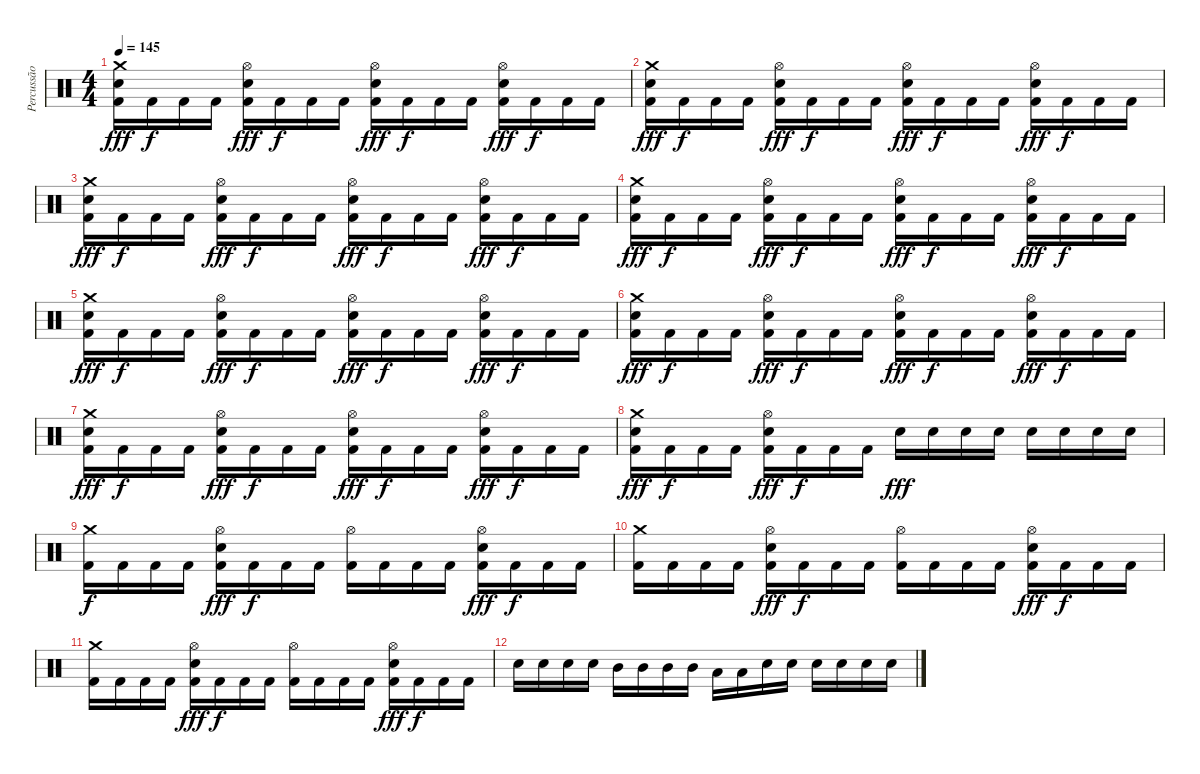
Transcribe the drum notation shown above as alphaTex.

\track ("Percussão" "Percussão") {instrument percussion}
\staff {score}
\articulation defaults
\ts (4 4)
\tempo 145
\clef neutral
\ks c
("Crash medium (hit)" "Snare (hit) 2" "Kick (hit) 2").16{dy fff} "Kick (hit) 2".16{dy f} "Kick (hit) 2".16 "Kick (hit) 2".16 ("Hi-Hat (open)" "Snare (hit) 2" "Kick (hit) 2").16{dy fff} "Kick (hit) 2".16{dy f} "Kick (hit) 2".16 "Kick (hit) 2".16 ("Hi-Hat (open)" "Snare (hit) 2" "Kick (hit) 2").16{dy fff} "Kick (hit) 2".16{dy f} "Kick (hit) 2".16 "Kick (hit) 2".16 ("Hi-Hat (open)" "Snare (hit) 2" "Kick (hit) 2").16{dy fff} "Kick (hit) 2".16{dy f} "Kick (hit) 2".16 "Kick (hit) 2".16 |
("Crash medium (hit)" "Snare (hit) 2" "Kick (hit) 2").16{dy fff} "Kick (hit) 2".16{dy f} "Kick (hit) 2".16 "Kick (hit) 2".16 ("Hi-Hat (open)" "Snare (hit) 2" "Kick (hit) 2").16{dy fff} "Kick (hit) 2".16{dy f} "Kick (hit) 2".16 "Kick (hit) 2".16 ("Hi-Hat (open)" "Snare (hit) 2" "Kick (hit) 2").16{dy fff} "Kick (hit) 2".16{dy f} "Kick (hit) 2".16 "Kick (hit) 2".16 ("Hi-Hat (open)" "Snare (hit) 2" "Kick (hit) 2").16{dy fff} "Kick (hit) 2".16{dy f} "Kick (hit) 2".16 "Kick (hit) 2".16 |
("Crash medium (hit)" "Snare (hit) 2" "Kick (hit) 2").16{dy fff} "Kick (hit) 2".16{dy f} "Kick (hit) 2".16 "Kick (hit) 2".16 ("Hi-Hat (open)" "Snare (hit) 2" "Kick (hit) 2").16{dy fff} "Kick (hit) 2".16{dy f} "Kick (hit) 2".16 "Kick (hit) 2".16 ("Hi-Hat (open)" "Snare (hit) 2" "Kick (hit) 2").16{dy fff} "Kick (hit) 2".16{dy f} "Kick (hit) 2".16 "Kick (hit) 2".16 ("Hi-Hat (open)" "Snare (hit) 2" "Kick (hit) 2").16{dy fff} "Kick (hit) 2".16{dy f} "Kick (hit) 2".16 "Kick (hit) 2".16 |
("Crash medium (hit)" "Snare (hit) 2" "Kick (hit) 2").16{dy fff} "Kick (hit) 2".16{dy f} "Kick (hit) 2".16 "Kick (hit) 2".16 ("Hi-Hat (open)" "Snare (hit) 2" "Kick (hit) 2").16{dy fff} "Kick (hit) 2".16{dy f} "Kick (hit) 2".16 "Kick (hit) 2".16 ("Hi-Hat (open)" "Snare (hit) 2" "Kick (hit) 2").16{dy fff} "Kick (hit) 2".16{dy f} "Kick (hit) 2".16 "Kick (hit) 2".16 ("Hi-Hat (open)" "Snare (hit) 2" "Kick (hit) 2").16{dy fff} "Kick (hit) 2".16{dy f} "Kick (hit) 2".16 "Kick (hit) 2".16 |
("Crash medium (hit)" "Snare (hit) 2" "Kick (hit) 2").16{dy fff} "Kick (hit) 2".16{dy f} "Kick (hit) 2".16 "Kick (hit) 2".16 ("Hi-Hat (open)" "Snare (hit) 2" "Kick (hit) 2").16{dy fff} "Kick (hit) 2".16{dy f} "Kick (hit) 2".16 "Kick (hit) 2".16 ("Hi-Hat (open)" "Snare (hit) 2" "Kick (hit) 2").16{dy fff} "Kick (hit) 2".16{dy f} "Kick (hit) 2".16 "Kick (hit) 2".16 ("Hi-Hat (open)" "Snare (hit) 2" "Kick (hit) 2").16{dy fff} "Kick (hit) 2".16{dy f} "Kick (hit) 2".16 "Kick (hit) 2".16 |
("Crash medium (hit)" "Snare (hit) 2" "Kick (hit) 2").16{dy fff} "Kick (hit) 2".16{dy f} "Kick (hit) 2".16 "Kick (hit) 2".16 ("Hi-Hat (open)" "Snare (hit) 2" "Kick (hit) 2").16{dy fff} "Kick (hit) 2".16{dy f} "Kick (hit) 2".16 "Kick (hit) 2".16 ("Hi-Hat (open)" "Snare (hit) 2" "Kick (hit) 2").16{dy fff} "Kick (hit) 2".16{dy f} "Kick (hit) 2".16 "Kick (hit) 2".16 ("Hi-Hat (open)" "Snare (hit) 2" "Kick (hit) 2").16{dy fff} "Kick (hit) 2".16{dy f} "Kick (hit) 2".16 "Kick (hit) 2".16 |
("Crash medium (hit)" "Snare (hit) 2" "Kick (hit) 2").16{dy fff} "Kick (hit) 2".16{dy f} "Kick (hit) 2".16 "Kick (hit) 2".16 ("Hi-Hat (open)" "Snare (hit) 2" "Kick (hit) 2").16{dy fff} "Kick (hit) 2".16{dy f} "Kick (hit) 2".16 "Kick (hit) 2".16 ("Hi-Hat (open)" "Snare (hit) 2" "Kick (hit) 2").16{dy fff} "Kick (hit) 2".16{dy f} "Kick (hit) 2".16 "Kick (hit) 2".16 ("Hi-Hat (open)" "Snare (hit) 2" "Kick (hit) 2").16{dy fff} "Kick (hit) 2".16{dy f} "Kick (hit) 2".16 "Kick (hit) 2".16 |
("Crash medium (hit)" "Snare (hit) 2" "Kick (hit) 2").16{dy fff} "Kick (hit) 2".16{dy f} "Kick (hit) 2".16 "Kick (hit) 2".16 ("Hi-Hat (open)" "Snare (hit) 2" "Kick (hit) 2").16{dy fff} "Kick (hit) 2".16{dy f} "Kick (hit) 2".16 "Kick (hit) 2".16 "Snare (hit) 2".16{dy fff} "Snare (hit) 2".16 "Snare (hit) 2".16 "Snare (hit) 2".16 "Snare (hit) 2".16 "Snare (hit) 2".16 "Snare (hit) 2".16 "Snare (hit) 2".16 |
("Crash medium (hit)" "Kick (hit) 2").16{dy f} "Kick (hit) 2".16 "Kick (hit) 2".16 "Kick (hit) 2".16 ("Hi-Hat (open)" "Snare (hit) 2" "Kick (hit) 2").16{dy fff} "Kick (hit) 2".16{dy f} "Kick (hit) 2".16 "Kick (hit) 2".16 ("Hi-Hat (open)" "Kick (hit) 2").16 "Kick (hit) 2".16 "Kick (hit) 2".16 "Kick (hit) 2".16 ("Hi-Hat (open)" "Snare (hit) 2" "Kick (hit) 2").16{dy fff} "Kick (hit) 2".16{dy f} "Kick (hit) 2".16 "Kick (hit) 2".16 |
("Crash medium (hit)" "Kick (hit) 2").16 "Kick (hit) 2".16 "Kick (hit) 2".16 "Kick (hit) 2".16 ("Hi-Hat (open)" "Snare (hit) 2" "Kick (hit) 2").16{dy fff} "Kick (hit) 2".16{dy f} "Kick (hit) 2".16 "Kick (hit) 2".16 ("Hi-Hat (open)" "Kick (hit) 2").16 "Kick (hit) 2".16 "Kick (hit) 2".16 "Kick (hit) 2".16 ("Hi-Hat (open)" "Snare (hit) 2" "Kick (hit) 2").16{dy fff} "Kick (hit) 2".16{dy f} "Kick (hit) 2".16 "Kick (hit) 2".16 |
("Crash medium (hit)" "Kick (hit) 2").16 "Kick (hit) 2".16 "Kick (hit) 2".16 "Kick (hit) 2".16 ("Hi-Hat (open)" "Snare (hit) 2" "Kick (hit) 2").16{dy fff} "Kick (hit) 2".16{dy f} "Kick (hit) 2".16 "Kick (hit) 2".16 ("Hi-Hat (open)" "Kick (hit) 2").16 "Kick (hit) 2".16 "Kick (hit) 2".16 "Kick (hit) 2".16 ("Hi-Hat (open)" "Snare (hit) 2" "Kick (hit) 2").16{dy fff} "Kick (hit) 2".16{dy f} "Kick (hit) 2".16 "Kick (hit) 2".16 |
"Snare (hit) 2".16 "Snare (hit) 2".16 "Snare (hit) 2".16 "Snare (hit) 2".16 "Mid Tom (hit)".16 "Mid Tom (hit)".16 "Mid Tom (hit)".16 "Mid Tom (hit)".16 "Low Tom (hit)".16 "Low Tom (hit)".16 "Snare (hit) 2".16 "Snare (hit) 2".16 "Snare (hit) 2".16 "Snare (hit) 2".16 "Snare (hit) 2".16 "Snare (hit) 2".16
